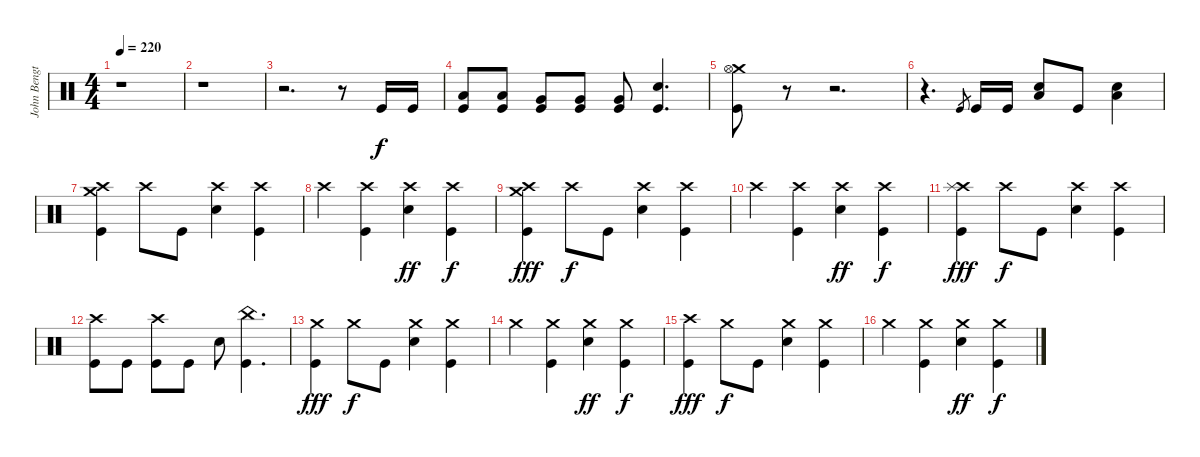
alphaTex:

\track ("John Bengtsson" "John Bengt") {instrument percussion}
\staff {score}
\articulation defaults
\ts (4 4)
\tempo 220
\clef neutral
\ks c
r.1{dy f} |
r.1 |
r.2{d} r.8 "Kick (hit)".16 "Kick (hit)".16 |
("Low Tom (hit)" "Kick (hit)").8 ("Low Tom (hit)" "Kick (hit)").8 ("Very Low Tom (hit)" "Kick (hit)").8 ("Very Low Tom (hit)" "Kick (hit)").8 ("Very Low Tom (hit)" "Kick (hit)").8 ("Snare (hit) 2" "Kick (hit)").4{d} |
("Crash medium (hit)" "Hi-Hat (open)" "Kick (hit)").8 r.8{volume 1} r.2{d} |
r.4{d volume 13} "Kick (hit)".8{gr} "Kick (hit)".16 "Kick (hit)".16 ("Low Floor Tom (hit)" "Snare (hit) 2").8 "Kick (hit)".8 ("Low Floor Tom (hit)" "Snare (hit) 2").4 |
("Crash medium (hit)" "Crash high (hit)" "Kick (hit)").4 "Crash high (hit)".8 "Kick (hit)".8 ("Crash high (hit)" "Snare (hit) 2").4 ("Crash high (hit)" "Kick (hit)").4 |
"Crash high (hit)".4 ("Crash high (hit)" "Kick (hit)").4 ("Crash high (hit)" "Snare (hit) 2").4{dy ff} ("Crash high (hit)" "Kick (hit)").4{dy f} |
("Crash high (hit)" "Crash medium (hit)" "Kick (hit)").4{dy fff} "Crash high (hit)".8{dy f} "Kick (hit)".8 ("Crash high (hit)" "Snare (hit) 2").4 ("Crash high (hit)" "Kick (hit)").4 |
"Crash high (hit)".4 ("Crash high (hit)" "Kick (hit)").4 ("Crash high (hit)" "Snare (hit) 2").4{dy ff} ("Crash high (hit)" "Kick (hit)").4{dy f} |
("Crash high (hit)" "Splash (hit)" "Kick (hit)").4{dy fff} "Crash high (hit)".8{dy f} "Kick (hit)".8 ("Crash high (hit)" "Snare (hit) 2").4 ("Crash high (hit)" "Kick (hit)").4 |
("Crash high (hit)" "Kick (hit)").8 "Kick (hit)".8 ("Crash high (hit)" "Kick (hit)").8 "Kick (hit)".8 "Snare (hit) 2".8 ("China (hit)" "Kick (hit)").4{d} |
("Crash medium (hit)" "Kick (hit)").4{dy fff} "Crash medium (hit)".8{dy f} "Kick (hit)".8 ("Crash medium (hit)" "Snare (hit) 2").4 ("Crash medium (hit)" "Kick (hit)").4 |
"Crash medium (hit)".4 ("Crash medium (hit)" "Kick (hit)").4 ("Crash medium (hit)" "Snare (hit) 2").4{dy ff} ("Crash medium (hit)" "Kick (hit)").4{dy f} |
("Crash high (hit)" "Kick (hit)").4{dy fff} "Crash medium (hit)".8{dy f} "Kick (hit)".8 ("Crash medium (hit)" "Snare (hit) 2").4 ("Crash medium (hit)" "Kick (hit)").4 |
"Crash medium (hit)".4 ("Crash medium (hit)" "Kick (hit)").4 ("Crash medium (hit)" "Snare (hit) 2").4{dy ff} ("Crash medium (hit)" "Kick (hit)").4{dy f}
